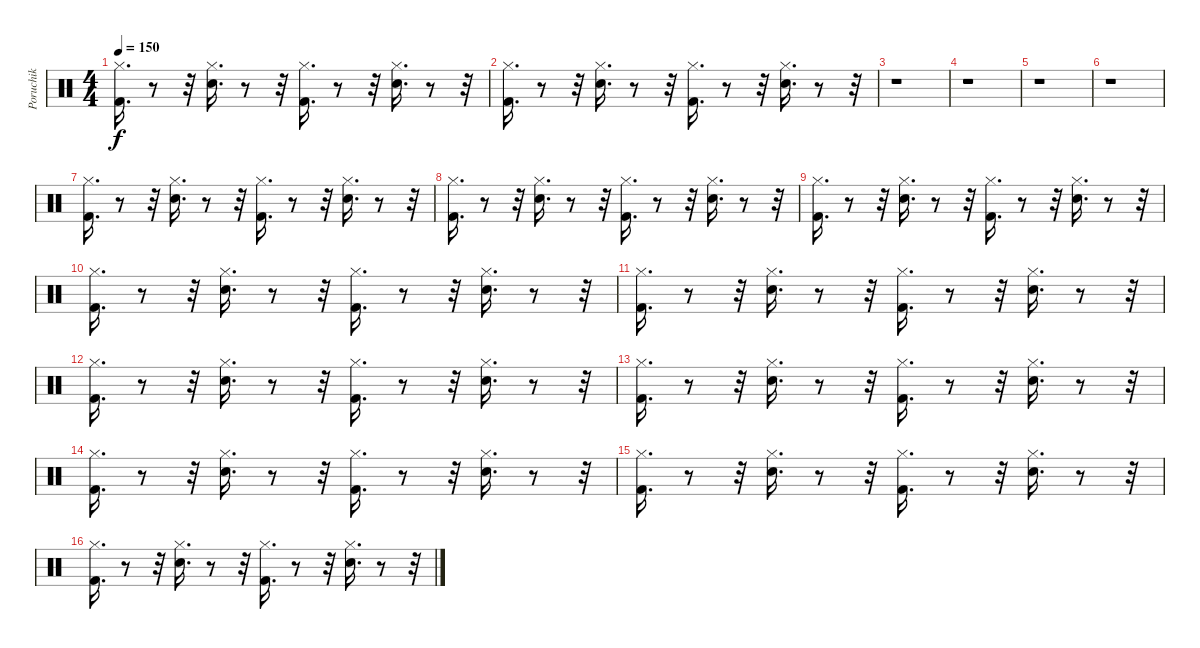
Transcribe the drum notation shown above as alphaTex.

\track ("Poruchik" "Poruchik") {instrument percussion}
\staff {score}
\articulation defaults
\ts (4 4)
\tempo 150
\clef neutral
\ks c
("Kick (hit) 2" "Hi-Hat (closed)").16{d dy f} r.8 r.32 ("Snare (hit) 2" "Hi-Hat (closed)").16{d} r.8 r.32 ("Kick (hit) 2" "Hi-Hat (closed)").16{d} r.8 r.32 ("Snare (hit) 2" "Hi-Hat (closed)").16{d} r.8 r.32 |
("Kick (hit) 2" "Hi-Hat (closed)").16{d} r.8 r.32 ("Snare (hit) 2" "Hi-Hat (closed)").16{d} r.8 r.32 ("Kick (hit) 2" "Hi-Hat (closed)").16{d} r.8 r.32 ("Snare (hit) 2" "Hi-Hat (closed)").16{d} r.8 r.32 |
r.1 |
r.1 |
r.1 |
r.1 |
("Kick (hit) 2" "Hi-Hat (closed)").16{d} r.8 r.32 ("Snare (hit) 2" "Hi-Hat (closed)").16{d} r.8 r.32 ("Kick (hit) 2" "Hi-Hat (closed)").16{d} r.8 r.32 ("Snare (hit) 2" "Hi-Hat (closed)").16{d} r.8 r.32 |
("Kick (hit) 2" "Hi-Hat (closed)").16{d} r.8 r.32 ("Snare (hit) 2" "Hi-Hat (closed)").16{d} r.8 r.32 ("Kick (hit) 2" "Hi-Hat (closed)").16{d} r.8 r.32 ("Snare (hit) 2" "Hi-Hat (closed)").16{d} r.8 r.32 |
("Kick (hit) 2" "Hi-Hat (closed)").16{d} r.8 r.32 ("Snare (hit) 2" "Hi-Hat (closed)").16{d} r.8 r.32 ("Kick (hit) 2" "Hi-Hat (closed)").16{d} r.8 r.32 ("Snare (hit) 2" "Hi-Hat (closed)").16{d} r.8 r.32 |
("Kick (hit) 2" "Hi-Hat (closed)").16{d} r.8 r.32 ("Snare (hit) 2" "Hi-Hat (closed)").16{d} r.8 r.32 ("Kick (hit) 2" "Hi-Hat (closed)").16{d} r.8 r.32 ("Snare (hit) 2" "Hi-Hat (closed)").16{d} r.8 r.32 |
("Kick (hit) 2" "Hi-Hat (closed)").16{d} r.8 r.32 ("Snare (hit) 2" "Hi-Hat (closed)").16{d} r.8 r.32 ("Kick (hit) 2" "Hi-Hat (closed)").16{d} r.8 r.32 ("Snare (hit) 2" "Hi-Hat (closed)").16{d} r.8 r.32 |
("Kick (hit) 2" "Hi-Hat (closed)").16{d} r.8 r.32 ("Snare (hit) 2" "Hi-Hat (closed)").16{d} r.8 r.32 ("Kick (hit) 2" "Hi-Hat (closed)").16{d} r.8 r.32 ("Snare (hit) 2" "Hi-Hat (closed)").16{d} r.8 r.32 |
("Kick (hit) 2" "Hi-Hat (closed)").16{d} r.8 r.32 ("Snare (hit) 2" "Hi-Hat (closed)").16{d} r.8 r.32 ("Kick (hit) 2" "Hi-Hat (closed)").16{d} r.8 r.32 ("Snare (hit) 2" "Hi-Hat (closed)").16{d} r.8 r.32 |
("Kick (hit) 2" "Hi-Hat (closed)").16{d} r.8 r.32 ("Snare (hit) 2" "Hi-Hat (closed)").16{d} r.8 r.32 ("Kick (hit) 2" "Hi-Hat (closed)").16{d} r.8 r.32 ("Snare (hit) 2" "Hi-Hat (closed)").16{d} r.8 r.32 |
("Kick (hit) 2" "Hi-Hat (closed)").16{d} r.8 r.32 ("Snare (hit) 2" "Hi-Hat (closed)").16{d} r.8 r.32 ("Kick (hit) 2" "Hi-Hat (closed)").16{d} r.8 r.32 ("Snare (hit) 2" "Hi-Hat (closed)").16{d} r.8 r.32 |
("Kick (hit) 2" "Hi-Hat (closed)").16{d} r.8 r.32 ("Snare (hit) 2" "Hi-Hat (closed)").16{d} r.8 r.32 ("Kick (hit) 2" "Hi-Hat (closed)").16{d} r.8 r.32 ("Snare (hit) 2" "Hi-Hat (closed)").16{d} r.8 r.32
